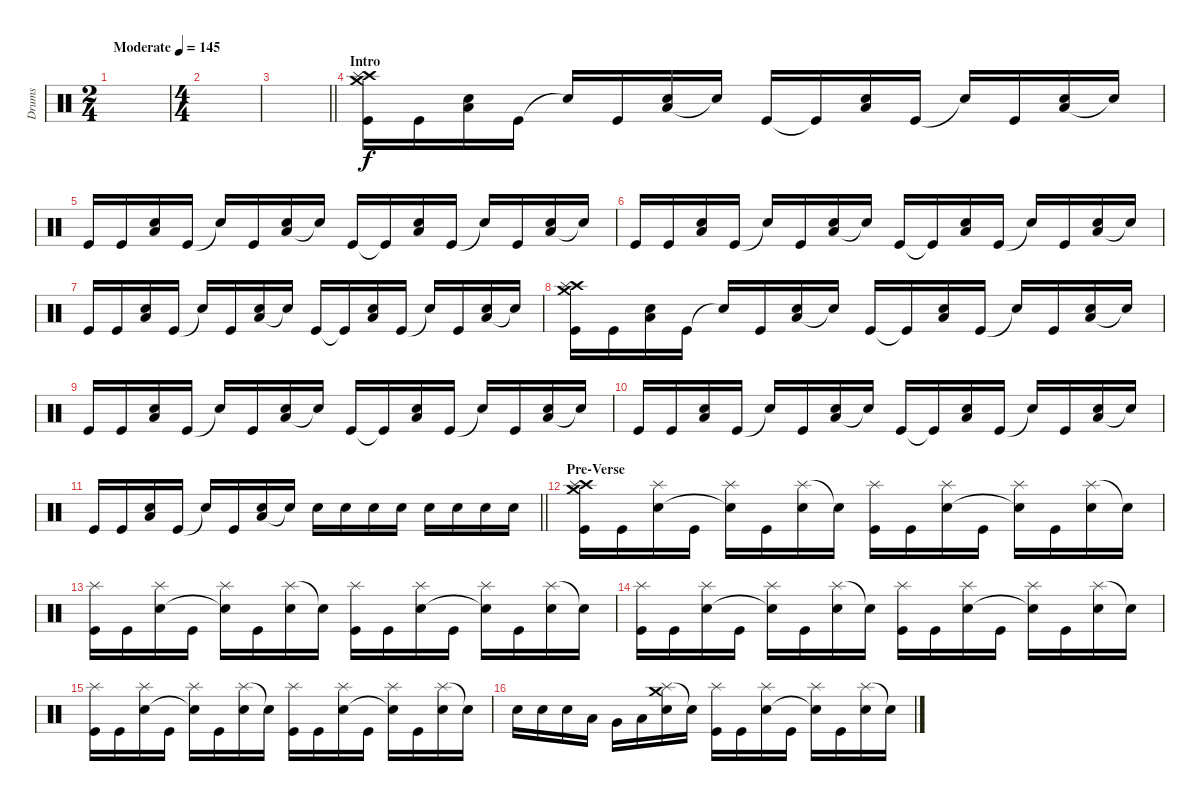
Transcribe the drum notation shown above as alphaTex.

\track ("Drums" "Drums") {instrument percussion}
\staff {score}
\articulation defaults
\ts (2 4)
\tempo (145 "Moderate")
\clef neutral
\ks c
|
\ts (4 4)
|
\barLineRight lightlight
|
\section ("" "Intro")
("Crash medium (hit)" "Crash high (hit)" "Splash (hit)" "Kick (hit)").16 "Kick (hit)".16 ("Low Floor Tom (hit)" "Electric Snare (hit)").16 "Kick (hit)".16 "Snare (hit)"{t}.16 "Kick (hit)".16 ("Low Floor Tom (hit)" "Electric Snare (hit)").16 "Snare (hit)"{t}.16 "Kick (hit)".16 "Kick (hit)"{t}.16 ("Low Floor Tom (hit)" "Electric Snare (hit)").16 "Kick (hit)".16 "Snare (hit)"{t}.16 "Kick (hit)".16 ("Low Floor Tom (hit)" "Electric Snare (hit)").16 "Snare (hit)"{t}.16 |
"Kick (hit)".16 "Kick (hit)".16 ("Low Floor Tom (hit)" "Electric Snare (hit)").16 "Kick (hit)".16 "Snare (hit)"{t}.16 "Kick (hit)".16 ("Low Floor Tom (hit)" "Electric Snare (hit)").16 "Snare (hit)"{t}.16 "Kick (hit)".16 "Kick (hit)"{t}.16 ("Low Floor Tom (hit)" "Electric Snare (hit)").16 "Kick (hit)".16 "Snare (hit)"{t}.16 "Kick (hit)".16 ("Low Floor Tom (hit)" "Electric Snare (hit)").16 "Snare (hit)"{t}.16 |
"Kick (hit)".16 "Kick (hit)".16 ("Low Floor Tom (hit)" "Electric Snare (hit)").16 "Kick (hit)".16 "Snare (hit)"{t}.16 "Kick (hit)".16 ("Low Floor Tom (hit)" "Electric Snare (hit)").16 "Snare (hit)"{t}.16 "Kick (hit)".16 "Kick (hit)"{t}.16 ("Low Floor Tom (hit)" "Electric Snare (hit)").16 "Kick (hit)".16 "Snare (hit)"{t}.16 "Kick (hit)".16 ("Low Floor Tom (hit)" "Electric Snare (hit)").16 "Snare (hit)"{t}.16 |
"Kick (hit)".16 "Kick (hit)".16 ("Low Floor Tom (hit)" "Electric Snare (hit)").16 "Kick (hit)".16 "Snare (hit)"{t}.16 "Kick (hit)".16 ("Low Floor Tom (hit)" "Electric Snare (hit)").16 "Snare (hit)"{t}.16 "Kick (hit)".16 "Kick (hit)"{t}.16 ("Low Floor Tom (hit)" "Electric Snare (hit)").16 "Kick (hit)".16 "Snare (hit)"{t}.16 "Kick (hit)".16 ("Low Floor Tom (hit)" "Electric Snare (hit)").16 "Snare (hit)"{t}.16 |
("Crash medium (hit)" "Crash high (hit)" "Splash (hit)" "Kick (hit)").16 "Kick (hit)".16 ("Low Floor Tom (hit)" "Electric Snare (hit)").16 "Kick (hit)".16 "Snare (hit)"{t}.16 "Kick (hit)".16 ("Low Floor Tom (hit)" "Electric Snare (hit)").16 "Snare (hit)"{t}.16 "Kick (hit)".16 "Kick (hit)"{t}.16 ("Low Floor Tom (hit)" "Electric Snare (hit)").16 "Kick (hit)".16 "Snare (hit)"{t}.16 "Kick (hit)".16 ("Low Floor Tom (hit)" "Electric Snare (hit)").16 "Snare (hit)"{t}.16 |
"Kick (hit)".16 "Kick (hit)".16 ("Low Floor Tom (hit)" "Electric Snare (hit)").16 "Kick (hit)".16 "Snare (hit)"{t}.16 "Kick (hit)".16 ("Low Floor Tom (hit)" "Electric Snare (hit)").16 "Snare (hit)"{t}.16 "Kick (hit)".16 "Kick (hit)"{t}.16 ("Low Floor Tom (hit)" "Electric Snare (hit)").16 "Kick (hit)".16 "Snare (hit)"{t}.16 "Kick (hit)".16 ("Low Floor Tom (hit)" "Electric Snare (hit)").16 "Snare (hit)"{t}.16 |
"Kick (hit)".16 "Kick (hit)".16 ("Low Floor Tom (hit)" "Electric Snare (hit)").16 "Kick (hit)".16 "Snare (hit)"{t}.16 "Kick (hit)".16 ("Low Floor Tom (hit)" "Electric Snare (hit)").16 "Snare (hit)"{t}.16 "Kick (hit)".16 "Kick (hit)"{t}.16 ("Low Floor Tom (hit)" "Electric Snare (hit)").16 "Kick (hit)".16 "Snare (hit)"{t}.16 "Kick (hit)".16 ("Low Floor Tom (hit)" "Electric Snare (hit)").16 "Snare (hit)"{t}.16 |
\barLineRight lightlight "Kick (hit)".16 "Kick (hit)".16
("Low Floor Tom (hit)" "Electric Snare (hit)").16 "Kick (hit)".16 "Snare (hit)"{t}.16 "Kick (hit)".16 ("Low Floor Tom (hit)" "Electric Snare (hit)").16 "Snare (hit)"{t}.16 "Electric Snare (hit)".16 "Electric Snare (hit)".16 "Electric Snare (hit)".16 "Electric Snare (hit)".16 "Electric Snare (hit)".16 "Electric Snare (hit)".16 "Electric Snare (hit)".16 "Electric Snare (hit)".16 |
\section ("" "Pre-Verse")
("Crash medium (hit)" "Crash high (hit)" "Splash (hit)" "Kick (hit)").16 "Kick (hit)".16 ("Splash (hit)" "Electric Snare (hit)").16 "Kick (hit)".16 ("Splash (hit)" "Snare (hit)"{t}).16 "Kick (hit)".16 ("Splash (hit)" "Electric Snare (hit)").16 "Snare (hit)"{t}.16 ("Splash (hit)" "Kick (hit)").16 "Kick (hit)".16 ("Splash (hit)" "Electric Snare (hit)").16 "Kick (hit)".16 ("Splash (hit)" "Snare (hit)"{t}).16 "Kick (hit)".16 ("Splash (hit)" "Electric Snare (hit)").16 "Snare (hit)"{t}.16 |
("Splash (hit)" "Kick (hit)").16 "Kick (hit)".16 ("Splash (hit)" "Electric Snare (hit)").16 "Kick (hit)".16 ("Splash (hit)" "Snare (hit)"{t}).16 "Kick (hit)".16 ("Splash (hit)" "Electric Snare (hit)").16 "Snare (hit)"{t}.16 ("Splash (hit)" "Kick (hit)").16 "Kick (hit)".16 ("Splash (hit)" "Electric Snare (hit)").16 "Kick (hit)".16 ("Splash (hit)" "Snare (hit)"{t}).16 "Kick (hit)".16 ("Splash (hit)" "Electric Snare (hit)").16 "Snare (hit)"{t}.16 |
("Splash (hit)" "Kick (hit)").16 "Kick (hit)".16 ("Splash (hit)" "Electric Snare (hit)").16 "Kick (hit)".16 ("Splash (hit)" "Snare (hit)"{t}).16 "Kick (hit)".16 ("Splash (hit)" "Electric Snare (hit)").16 "Snare (hit)"{t}.16 ("Splash (hit)" "Kick (hit)").16 "Kick (hit)".16 ("Splash (hit)" "Electric Snare (hit)").16 "Kick (hit)".16 ("Splash (hit)" "Snare (hit)"{t}).16 "Kick (hit)".16 ("Splash (hit)" "Electric Snare (hit)").16 "Snare (hit)"{t}.16 |
("Splash (hit)" "Kick (hit)").16 "Kick (hit)".16 ("Splash (hit)" "Electric Snare (hit)").16 "Kick (hit)".16 ("Splash (hit)" "Snare (hit)"{t}).16 "Kick (hit)".16 ("Splash (hit)" "Electric Snare (hit)").16 "Snare (hit)"{t}.16 ("Splash (hit)" "Kick (hit)").16 "Kick (hit)".16 ("Splash (hit)" "Electric Snare (hit)").16 "Kick (hit)".16 ("Splash (hit)" "Snare (hit)"{t}).16 "Kick (hit)".16 ("Splash (hit)" "Electric Snare (hit)").16 "Snare (hit)"{t}.16 |
"Electric Snare (hit)".16 "Electric Snare (hit)".16 "Electric Snare (hit)".16 "Low Tom (hit)".16 "Very Low Tom (hit)".16 "Low Floor Tom (hit)".16 ("Splash (hit)" "Crash medium (hit)" "Electric Snare (hit)").16 "Snare (hit)"{t}.16 ("Splash (hit)" "Kick (hit)").16 "Kick (hit)".16 ("Splash (hit)" "Electric Snare (hit)").16 "Kick (hit)".16 ("Splash (hit)" "Snare (hit)"{t}).16 "Kick (hit)".16 ("Splash (hit)" "Electric Snare (hit)").16 "Snare (hit)"{t}.16
